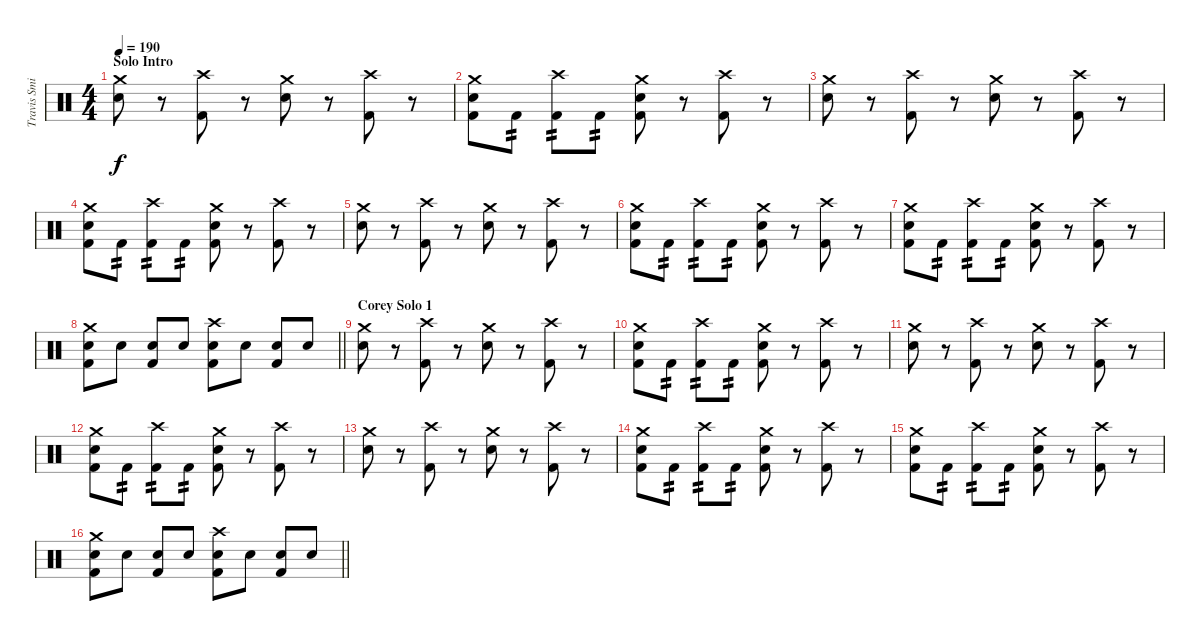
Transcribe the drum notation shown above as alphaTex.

\track ("Travis Smith" "Travis Smi") {instrument percussion}
\staff {score}
\articulation defaults
\ts (4 4)
\section ("" "Solo Intro")
\tempo 190
\clef neutral
\ks c
("Crash medium (hit)" "Electric Snare (hit)").8{dy f} r.8 ("Crash high (hit)" "Kick (hit) 2").8 r.8 ("Crash medium (hit)" "Electric Snare (hit)").8 r.8 ("Crash high (hit)" "Kick (hit) 2").8 r.8 |
("Crash medium (hit)" "Electric Snare (hit)" "Kick (hit) 2").8 "Kick (hit) 2".8{tp 2} ("Crash high (hit)" "Kick (hit) 2").8{tp 2} "Kick (hit) 2".8{tp 2} ("Crash medium (hit)" "Electric Snare (hit)" "Kick (hit) 2").8 r.8 ("Crash high (hit)" "Kick (hit) 2").8 r.8 |
("Crash medium (hit)" "Electric Snare (hit)").8 r.8 ("Crash high (hit)" "Kick (hit) 2").8 r.8 ("Crash medium (hit)" "Electric Snare (hit)").8 r.8 ("Crash high (hit)" "Kick (hit) 2").8 r.8 |
("Crash medium (hit)" "Electric Snare (hit)" "Kick (hit) 2").8 "Kick (hit) 2".8{tp 2} ("Crash high (hit)" "Kick (hit) 2").8{tp 2} "Kick (hit) 2".8{tp 2} ("Crash medium (hit)" "Electric Snare (hit)" "Kick (hit) 2").8 r.8 ("Crash high (hit)" "Kick (hit) 2").8 r.8 |
("Crash medium (hit)" "Electric Snare (hit)").8 r.8 ("Crash high (hit)" "Kick (hit) 2").8 r.8 ("Crash medium (hit)" "Electric Snare (hit)").8 r.8 ("Crash high (hit)" "Kick (hit) 2").8 r.8 |
("Crash medium (hit)" "Electric Snare (hit)" "Kick (hit) 2").8 "Kick (hit) 2".8{tp 2} ("Crash high (hit)" "Kick (hit) 2").8{tp 2} "Kick (hit) 2".8{tp 2} ("Crash medium (hit)" "Electric Snare (hit)" "Kick (hit) 2").8 r.8 ("Crash high (hit)" "Kick (hit) 2").8 r.8 |
("Crash medium (hit)" "Electric Snare (hit)" "Kick (hit) 2").8 "Kick (hit) 2".8{tp 2} ("Crash high (hit)" "Kick (hit) 2").8{tp 2} "Kick (hit) 2".8{tp 2} ("Crash medium (hit)" "Electric Snare (hit)" "Kick (hit) 2").8 r.8 ("Crash high (hit)" "Kick (hit) 2").8 r.8 |
\barLineRight lightlight
("Crash medium (hit)" "Electric Snare (hit)" "Kick (hit) 2").8 "Electric Snare (hit)".8 ("Electric Snare (hit)" "Kick (hit) 2").8 "Electric Snare (hit)".8 ("Crash high (hit)" "Snare (hit) 2" "Kick (hit) 2").8 "Snare (hit) 2".8 ("Snare (hit) 2" "Kick (hit) 2").8 "Snare (hit) 2".8 |
\section ("" "Corey Solo 1")
("Crash medium (hit)" "Electric Snare (hit)").8 r.8 ("Crash high (hit)" "Kick (hit) 2").8 r.8 ("Crash medium (hit)" "Electric Snare (hit)").8 r.8 ("Crash high (hit)" "Kick (hit) 2").8 r.8 |
("Crash medium (hit)" "Electric Snare (hit)" "Kick (hit) 2").8 "Kick (hit) 2".8{tp 2} ("Crash high (hit)" "Kick (hit) 2").8{tp 2} "Kick (hit) 2".8{tp 2} ("Crash medium (hit)" "Electric Snare (hit)" "Kick (hit) 2").8 r.8 ("Crash high (hit)" "Kick (hit) 2").8 r.8 |
("Crash medium (hit)" "Electric Snare (hit)").8 r.8 ("Crash high (hit)" "Kick (hit) 2").8 r.8 ("Crash medium (hit)" "Electric Snare (hit)").8 r.8 ("Crash high (hit)" "Kick (hit) 2").8 r.8 |
("Crash medium (hit)" "Electric Snare (hit)" "Kick (hit) 2").8 "Kick (hit) 2".8{tp 2} ("Crash high (hit)" "Kick (hit) 2").8{tp 2} "Kick (hit) 2".8{tp 2} ("Crash medium (hit)" "Electric Snare (hit)" "Kick (hit) 2").8 r.8 ("Crash high (hit)" "Kick (hit) 2").8 r.8 |
("Crash medium (hit)" "Electric Snare (hit)").8 r.8 ("Crash high (hit)" "Kick (hit) 2").8 r.8 ("Crash medium (hit)" "Electric Snare (hit)").8 r.8 ("Crash high (hit)" "Kick (hit) 2").8 r.8 |
("Crash medium (hit)" "Electric Snare (hit)" "Kick (hit) 2").8 "Kick (hit) 2".8{tp 2} ("Crash high (hit)" "Kick (hit) 2").8{tp 2} "Kick (hit) 2".8{tp 2} ("Crash medium (hit)" "Electric Snare (hit)" "Kick (hit) 2").8 r.8 ("Crash high (hit)" "Kick (hit) 2").8 r.8 |
("Crash medium (hit)" "Electric Snare (hit)" "Kick (hit) 2").8 "Kick (hit) 2".8{tp 2} ("Crash high (hit)" "Kick (hit) 2").8{tp 2} "Kick (hit) 2".8{tp 2} ("Crash medium (hit)" "Electric Snare (hit)" "Kick (hit) 2").8 r.8 ("Crash high (hit)" "Kick (hit) 2").8 r.8 |
\barLineRight lightlight
("Crash medium (hit)" "Electric Snare (hit)" "Kick (hit) 2").8 "Electric Snare (hit)".8 ("Electric Snare (hit)" "Kick (hit) 2").8 "Electric Snare (hit)".8 ("Crash high (hit)" "Snare (hit) 2" "Kick (hit) 2").8 "Snare (hit) 2".8 ("Snare (hit) 2" "Kick (hit) 2").8 "Snare (hit) 2".8
